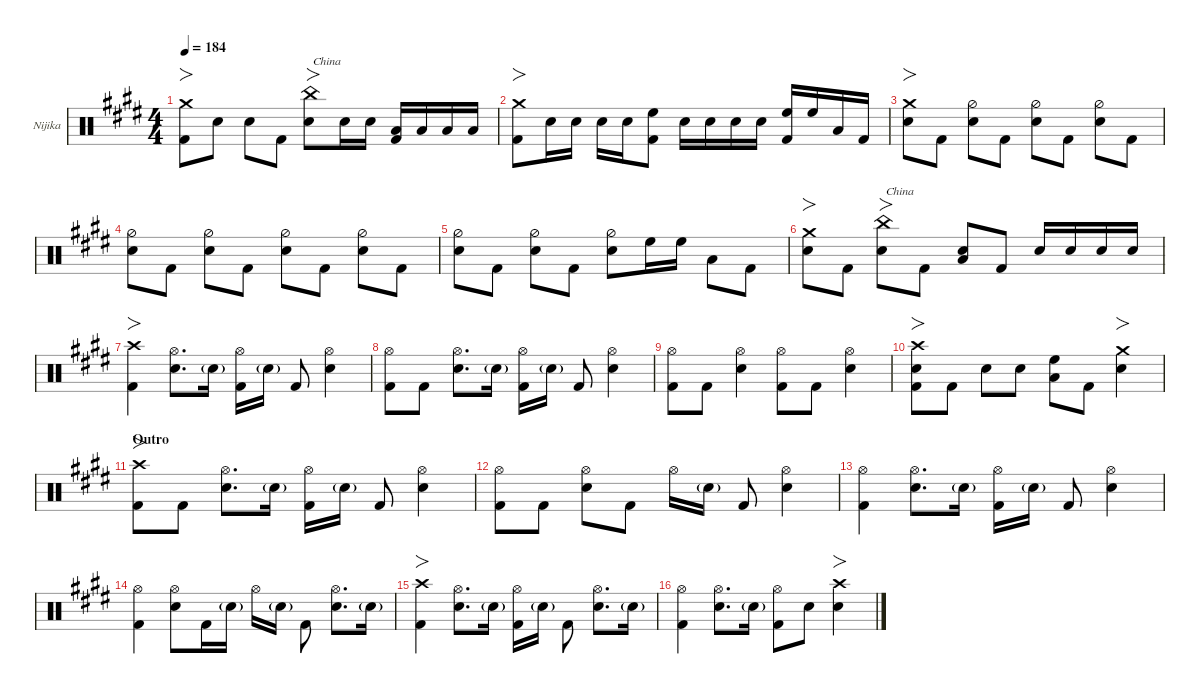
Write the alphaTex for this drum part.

\defaultSystemsLayout 4
\hideDynamics
\bracketExtendMode nobrackets
\firstSystemTrackNameOrientation horizontal
\track ("Nijika" "Nijika") {defaultSystemsLayout 4 instrument percussion}
\staff {score}
\articulation defaults
\ts (4 4)
\tempo 184
\clef neutral
\ks e
("Crash medium (hit)"{acc forcenatural} "Kick (hit) 2"{acc forcenatural}).8{fo dy f beam Down} "Snare (hit) 2"{acc forcenatural}.8{beam Down} "Snare (hit) 2"{acc forcenatural}.8{beam Down} "Kick (hit) 2"{acc forcenatural}.8{beam Down} ("Snare (hit) 2"{acc forcenatural} "China (hit)"{acc forcenatural}).8{fo txt "China" beam Down} "Snare (hit) 2"{acc forcenatural}.16{beam Down} "Snare (hit) 2"{acc forcenatural}.16{beam Down beam split} ("Low Tom (hit)"{acc forcenatural} "Kick (hit) 2"{acc forcenatural}).16{beam Up} "Low Tom (hit)"{acc forcenatural}.16{beam Up} "Low Tom (hit)"{acc forcenatural}.16{beam Up} "Low Tom (hit)"{acc forcenatural}.16{beam Up} |
("Crash medium (hit)"{acc forcenatural} "Kick (hit) 2"{acc forcenatural}).8{fo beam Down} "Snare (hit) 2"{acc forcenatural}.16{beam Down} "Snare (hit) 2"{acc forcenatural}.16{dy mf beam Down beam split} "Snare (hit) 2"{acc forcenatural}.16{dy f beam Down} "Snare (hit) 2"{acc forcenatural}.16{dy mf beam Down beam merge} ("High Floor Tom (hit)"{acc forcenatural} "Kick (hit) 2"{acc forcenatural}).8{dy f beam Down} "Snare (hit) 2"{acc forcenatural}.16{beam Down} "Snare (hit) 2"{acc forcenatural}.16{dy mf beam Down beam merge} "Snare (hit) 2"{acc forcenatural}.16{dy f beam Down} "Snare (hit) 2"{acc forcenatural}.16{dy mf beam Down beam split} ("High Floor Tom (hit)"{acc forcenatural} "Kick (hit) 2"{acc forcenatural}).16{dy f beam Up} "High Floor Tom (hit)"{acc forcenatural}.16{beam Up} "Low Tom (hit)"{acc forcenatural}.16{beam Up} "Kick (hit) 2"{acc forcenatural}.16{beam Up} |
("Crash medium (hit)"{acc forcenatural} "Snare (hit) 2"{acc forcenatural}).8{fo beam Down} "Kick (hit) 2"{acc forcenatural}.8{beam Down} ("Hi-Hat (half)"{acc forcenatural} "Snare (hit) 2"{acc forcenatural}).8{beam Down} "Kick (hit) 2"{acc forcenatural}.8{beam Down} ("Hi-Hat (half)"{acc forcenatural} "Snare (hit) 2"{acc forcenatural}).8{beam Down} "Kick (hit) 2"{acc forcenatural}.8{beam Down} ("Hi-Hat (half)"{acc forcenatural} "Snare (hit) 2"{acc forcenatural}).8{beam Down} "Kick (hit) 2"{acc forcenatural}.8{beam Down} |
("Hi-Hat (half)"{acc forcenatural} "Snare (hit) 2"{acc forcenatural}).8{beam Down} "Kick (hit) 2"{acc forcenatural}.8{beam Down} ("Hi-Hat (half)"{acc forcenatural} "Snare (hit) 2"{acc forcenatural}).8{beam Down} "Kick (hit) 2"{acc forcenatural}.8{beam Down} ("Hi-Hat (half)"{acc forcenatural} "Snare (hit) 2"{acc forcenatural}).8{beam Down} "Kick (hit) 2"{acc forcenatural}.8{beam Down} ("Hi-Hat (half)"{acc forcenatural} "Snare (hit) 2"{acc forcenatural}).8{beam Down} "Kick (hit) 2"{acc forcenatural}.8{beam Down} |
("Hi-Hat (half)"{acc forcenatural} "Snare (hit) 2"{acc forcenatural}).8{beam Down} "Kick (hit) 2"{acc forcenatural}.8{beam Down} ("Hi-Hat (half)"{acc forcenatural} "Snare (hit) 2"{acc forcenatural}).8{beam Down} "Kick (hit) 2"{acc forcenatural}.8{beam Down} ("Hi-Hat (half)"{acc forcenatural} "Snare (hit) 2"{acc forcenatural}).8{beam Down} "High Floor Tom (hit)"{acc forcenatural}.16{beam Down} "High Floor Tom (hit)"{acc forcenatural}.16{beam Down} "Low Tom (hit)"{acc forcenatural}.8{beam Down} "Kick (hit) 2"{acc forcenatural}.8{beam Down} |
("Crash medium (hit)"{acc forcenatural} "Snare (hit) 2"{acc forcenatural}).8{fo beam Down} "Kick (hit) 2"{acc forcenatural}.8{beam Down} ("China (hit)"{acc forcenatural} "Snare (hit) 2"{acc forcenatural}).8{fo txt "China" beam Down} "Kick (hit) 2"{acc forcenatural}.8{beam Down} ("Snare (hit) 2"{acc forcenatural} "Low Tom (hit)"{acc forcenatural}).8{beam Up} "Kick (hit) 2"{acc forcenatural}.8{beam Up} "Snare (hit) 2"{acc forcenatural}.16{beam Up} "Snare (hit) 2"{acc forcenatural}.16{dy mf beam Up beam merge} "Snare (hit) 2"{acc forcenatural}.16{dy f beam Up} "Snare (hit) 2"{acc forcenatural}.16{dy mf beam Up beam split} |
("Crash high (hit)"{acc forcenatural} "Kick (hit) 2"{acc forcenatural}).4{fo dy f beam Down} ("Hi-Hat (open)"{acc forcenatural} "Snare (hit) 2"{acc forcenatural}).8{d beam Down} "Snare (hit) 2"{g acc forcenatural}.16{dy mf beam Down} ("Hi-Hat (open)"{acc forcenatural} "Kick (hit) 2"{acc forcenatural}).16{dy f beam Down} "Snare (hit) 2"{g acc forcenatural}.16{dy mf beam Down beam split} "Kick (hit) 2"{acc forcenatural}.8{dy f beam Up} ("Hi-Hat (open)"{acc forcenatural} "Snare (hit) 2"{acc forcenatural}).4{beam Down} |
("Hi-Hat (open)"{acc forcenatural} "Kick (hit) 2"{acc forcenatural}).8{beam Down} "Kick (hit) 2"{acc forcenatural}.8{beam Down} ("Hi-Hat (open)"{acc forcenatural} "Snare (hit) 2"{acc forcenatural}).8{d beam Down} "Snare (hit) 2"{g acc forcenatural}.16{dy mf beam Down} ("Hi-Hat (open)"{acc forcenatural} "Kick (hit) 2"{acc forcenatural}).16{dy f beam Down} "Snare (hit) 2"{g acc forcenatural}.16{dy mf beam Down beam split} "Kick (hit) 2"{acc forcenatural}.8{dy f beam Up} ("Hi-Hat (open)"{acc forcenatural} "Snare (hit) 2"{acc forcenatural}).4{beam Down} |
("Hi-Hat (open)"{acc forcenatural} "Kick (hit) 2"{acc forcenatural}).8{beam Down} "Kick (hit) 2"{acc forcenatural}.8{beam Down} ("Hi-Hat (open)"{acc forcenatural} "Snare (hit) 2"{acc forcenatural}).4{beam Down} ("Hi-Hat (open)"{acc forcenatural} "Kick (hit) 2"{acc forcenatural}).8{beam Down} "Kick (hit) 2"{acc forcenatural}.8{beam Down} ("Hi-Hat (open)"{acc forcenatural} "Snare (hit) 2"{acc forcenatural}).4{beam Down} |
("Snare (hit) 2"{acc forcenatural} "Crash high (hit)"{acc forcenatural} "Kick (hit) 2"{acc forcenatural}).8{fo beam Down} "Kick (hit) 2"{acc forcenatural}.8{beam Down} "Snare (hit) 2"{acc forcenatural}.8{beam Down} "Snare (hit) 2"{acc forcenatural}.8{beam Down} ("Low Tom (hit)"{acc forcenatural} "High Floor Tom (hit)"{acc forcenatural}).8{beam Down} "Kick (hit) 2"{acc forcenatural}.8{beam Down} ("Snare (hit) 2"{acc forcenatural} "Crash medium (hit)"{acc forcenatural}).4{fo beam Down} |
\section ("" "Outro")
("Crash high (hit)"{acc forcenatural} "Kick (hit) 2"{acc forcenatural}).8{fo beam Down} "Kick (hit) 2"{acc forcenatural}.8{beam Down} ("Hi-Hat (open)"{acc forcenatural} "Snare (hit) 2"{acc forcenatural}).8{d beam Down} "Snare (hit) 2"{g acc forcenatural}.16{dy mf beam Down} ("Hi-Hat (open)"{acc forcenatural} "Kick (hit) 2"{acc forcenatural}).16{dy f beam Down} "Snare (hit) 2"{g acc forcenatural}.16{dy mf beam Down beam split} "Kick (hit) 2"{acc forcenatural}.8{dy f beam Up} ("Hi-Hat (open)"{acc forcenatural} "Snare (hit) 2"{acc forcenatural}).4{beam Down} |
("Hi-Hat (open)"{acc forcenatural} "Kick (hit) 2"{acc forcenatural}).8{beam Down} "Kick (hit) 2"{acc forcenatural}.8{beam Down} ("Hi-Hat (open)"{acc forcenatural} "Snare (hit) 2"{acc forcenatural}).8{beam Down} "Kick (hit) 2"{acc forcenatural}.8{beam Down} "Hi-Hat (open)"{acc forcenatural}.16{beam Down} "Snare (hit) 2"{g acc forcenatural}.16{dy mf beam Down beam split} "Kick (hit) 2"{acc forcenatural}.8{dy f beam Up} ("Hi-Hat (open)"{acc forcenatural} "Snare (hit) 2"{acc forcenatural}).4{beam Down} |
("Hi-Hat (open)"{acc forcenatural} "Kick (hit) 2"{acc forcenatural}).4{beam Down} ("Hi-Hat (open)"{acc forcenatural} "Snare (hit) 2"{acc forcenatural}).8{d beam Down} "Snare (hit) 2"{g acc forcenatural}.16{dy mf beam Down} ("Hi-Hat (open)"{acc forcenatural} "Kick (hit) 2"{acc forcenatural}).16{dy f beam Down} "Snare (hit) 2"{g acc forcenatural}.16{dy mf beam Down beam split} "Kick (hit) 2"{acc forcenatural}.8{dy f beam Up} ("Hi-Hat (open)"{acc forcenatural} "Snare (hit) 2"{acc forcenatural}).4{beam Down} |
("Hi-Hat (open)"{acc forcenatural} "Kick (hit) 2"{acc forcenatural}).4{beam Down} ("Hi-Hat (open)"{acc forcenatural} "Snare (hit) 2"{acc forcenatural}).8{beam Down} "Kick (hit) 2"{acc forcenatural}.16{beam Down} "Snare (hit) 2"{g acc forcenatural}.16{dy mf beam Down} "Hi-Hat (open)"{acc forcenatural}.16{dy f beam Down} "Snare (hit) 2"{g acc forcenatural}.16{dy mf beam Down beam split} "Kick (hit) 2"{acc forcenatural}.8{dy f beam Down} ("Hi-Hat (open)"{acc forcenatural} "Snare (hit) 2"{acc forcenatural}).8{d beam Down} "Snare (hit) 2"{g acc forcenatural}.16{dy mf beam Down} |
("Crash high (hit)"{acc forcenatural} "Kick (hit) 2"{acc forcenatural}).4{fo dy f beam Down} ("Hi-Hat (open)"{acc forcenatural} "Snare (hit) 2"{acc forcenatural}).8{d beam Down} "Snare (hit) 2"{g acc forcenatural}.16{dy mf beam Down} ("Hi-Hat (open)"{acc forcenatural} "Kick (hit) 2"{acc forcenatural}).16{dy f beam Down} "Snare (hit) 2"{g acc forcenatural}.16{dy mf beam Down beam split} "Kick (hit) 2"{acc forcenatural}.8{dy f beam Down} ("Hi-Hat (open)"{acc forcenatural} "Snare (hit) 2"{acc forcenatural}).8{d beam Down} "Snare (hit) 2"{g acc forcenatural}.16{dy mf beam Down} |
("Hi-Hat (open)"{acc forcenatural} "Kick (hit) 2"{acc forcenatural}).4{dy f beam Down} ("Hi-Hat (open)"{acc forcenatural} "Snare (hit) 2"{acc forcenatural}).8{d beam Down} "Snare (hit) 2"{g acc forcenatural}.16{dy mf beam Down} ("Hi-Hat (open)"{acc forcenatural} "Kick (hit) 2"{acc forcenatural}).8{dy f beam Down} "Snare (hit) 2"{acc forcenatural}.8{beam Down} ("Snare (hit) 2"{acc forcenatural} "Crash high (hit)"{acc forcenatural}).4{fo beam Down}
